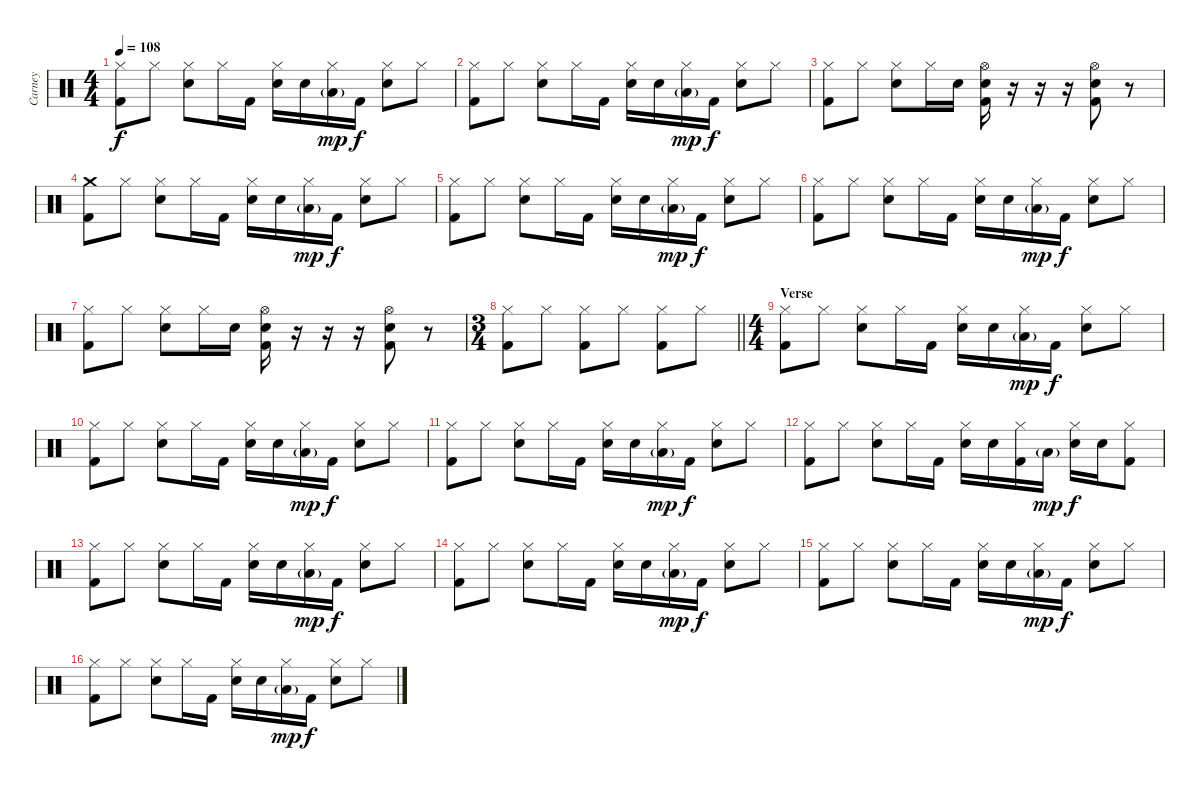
\track ("Carney" "Carney") {instrument percussion}
\staff {score}
\articulation defaults
\ts (4 4)
\tempo 108
\clef neutral
\ks c
("Hi-Hat (closed)" "Kick (hit) 2").8{dy f} "Hi-Hat (closed)".8 ("Hi-Hat (closed)" "Snare (hit) 2").8 "Hi-Hat (closed)".16 "Kick (hit) 2".16 ("Hi-Hat (closed)" "Snare (hit) 2").16 "Snare (hit) 2".16 ("Hi-Hat (closed)" "Low Floor Tom (hit)"{g}).16{dy mp} "Kick (hit) 2".16{dy f} ("Hi-Hat (closed)" "Snare (hit) 2").8 "Hi-Hat (closed)".8 |
("Hi-Hat (closed)" "Kick (hit) 2").8 "Hi-Hat (closed)".8 ("Hi-Hat (closed)" "Snare (hit) 2").8 "Hi-Hat (closed)".16 "Kick (hit) 2".16 ("Hi-Hat (closed)" "Snare (hit) 2").16 "Snare (hit) 2".16 ("Hi-Hat (closed)" "Low Floor Tom (hit)"{g}).16{dy mp} "Kick (hit) 2".16{dy f} ("Hi-Hat (closed)" "Snare (hit) 2").8 "Hi-Hat (closed)".8 |
("Hi-Hat (closed)" "Kick (hit) 2").8 "Hi-Hat (closed)".8 ("Hi-Hat (closed)" "Snare (hit) 2").8 "Hi-Hat (closed)".16 "Snare (hit) 2".16 ("Hi-Hat (open)" "Snare (hit) 2" "Kick (hit) 2").16 r.16 r.16 r.16 ("Hi-Hat (open)" "Snare (hit) 2" "Kick (hit) 2").8 r.8 |
("Crash medium (hit)" "Kick (hit) 2").8 "Hi-Hat (closed)".8 ("Hi-Hat (closed)" "Snare (hit) 2").8 "Hi-Hat (closed)".16 "Kick (hit) 2".16 ("Hi-Hat (closed)" "Snare (hit) 2").16 "Snare (hit) 2".16 ("Hi-Hat (closed)" "Low Floor Tom (hit)"{g}).16{dy mp} "Kick (hit) 2".16{dy f} ("Hi-Hat (closed)" "Snare (hit) 2").8 "Hi-Hat (closed)".8 |
("Hi-Hat (closed)" "Kick (hit) 2").8 "Hi-Hat (closed)".8 ("Hi-Hat (closed)" "Snare (hit) 2").8 "Hi-Hat (closed)".16 "Kick (hit) 2".16 ("Hi-Hat (closed)" "Snare (hit) 2").16 "Snare (hit) 2".16 ("Hi-Hat (closed)" "Low Floor Tom (hit)"{g}).16{dy mp} "Kick (hit) 2".16{dy f} ("Hi-Hat (closed)" "Snare (hit) 2").8 "Hi-Hat (closed)".8 |
("Hi-Hat (closed)" "Kick (hit) 2").8 "Hi-Hat (closed)".8 ("Hi-Hat (closed)" "Snare (hit) 2").8 "Hi-Hat (closed)".16 "Kick (hit) 2".16 ("Hi-Hat (closed)" "Snare (hit) 2").16 "Snare (hit) 2".16 ("Hi-Hat (closed)" "Low Floor Tom (hit)"{g}).16{dy mp} "Kick (hit) 2".16{dy f} ("Hi-Hat (closed)" "Snare (hit) 2").8 "Hi-Hat (closed)".8 |
("Hi-Hat (closed)" "Kick (hit) 2").8 "Hi-Hat (closed)".8 ("Hi-Hat (closed)" "Snare (hit) 2").8 "Hi-Hat (closed)".16 "Snare (hit) 2".16 ("Hi-Hat (open)" "Snare (hit) 2" "Kick (hit) 2").16 r.16 r.16 r.16 ("Hi-Hat (open)" "Snare (hit) 2" "Kick (hit) 2").8 r.8 |
\ts (3 4)
\barLineRight lightlight
("Hi-Hat (closed)" "Kick (hit) 2").8 "Hi-Hat (closed)".8 ("Hi-Hat (closed)" "Kick (hit) 2").8 "Hi-Hat (closed)".8 ("Hi-Hat (closed)" "Kick (hit) 2").8 "Hi-Hat (closed)".8 |
\ts (4 4)
\section ("" "Verse")
("Hi-Hat (closed)" "Kick (hit) 2").8 "Hi-Hat (closed)".8 ("Hi-Hat (closed)" "Snare (hit) 2").8 "Hi-Hat (closed)".16 "Kick (hit) 2".16 ("Hi-Hat (closed)" "Snare (hit) 2").16 "Snare (hit) 2".16 ("Hi-Hat (closed)" "Low Floor Tom (hit)"{g}).16{dy mp} "Kick (hit) 2".16{dy f} ("Hi-Hat (closed)" "Snare (hit) 2").8 "Hi-Hat (closed)".8 |
("Hi-Hat (closed)" "Kick (hit) 2").8 "Hi-Hat (closed)".8 ("Hi-Hat (closed)" "Snare (hit) 2").8 "Hi-Hat (closed)".16 "Kick (hit) 2".16 ("Hi-Hat (closed)" "Snare (hit) 2").16 "Snare (hit) 2".16 ("Hi-Hat (closed)" "Low Floor Tom (hit)"{g}).16{dy mp} "Kick (hit) 2".16{dy f} ("Hi-Hat (closed)" "Snare (hit) 2").8 "Hi-Hat (closed)".8 |
("Hi-Hat (closed)" "Kick (hit) 2").8 "Hi-Hat (closed)".8 ("Hi-Hat (closed)" "Snare (hit) 2").8 "Hi-Hat (closed)".16 "Kick (hit) 2".16 ("Hi-Hat (closed)" "Snare (hit) 2").16 "Snare (hit) 2".16 ("Hi-Hat (closed)" "Low Floor Tom (hit)"{g}).16{dy mp} "Kick (hit) 2".16{dy f} ("Hi-Hat (closed)" "Snare (hit) 2").8 "Hi-Hat (closed)".8 |
("Hi-Hat (closed)" "Kick (hit) 2").8 "Hi-Hat (closed)".8 ("Hi-Hat (closed)" "Snare (hit) 2").8 "Hi-Hat (closed)".16 "Kick (hit) 2".16 ("Hi-Hat (closed)" "Snare (hit) 2").16 "Snare (hit) 2".16 ("Hi-Hat (closed)" "Kick (hit) 2").16 "Low Floor Tom (hit)"{g}.16{dy mp} ("Hi-Hat (closed)" "Snare (hit) 2").16{dy f} "Snare (hit) 2".16 ("Hi-Hat (closed)" "Kick (hit) 2").8 |
("Hi-Hat (closed)" "Kick (hit) 2").8 "Hi-Hat (closed)".8 ("Hi-Hat (closed)" "Snare (hit) 2").8 "Hi-Hat (closed)".16 "Kick (hit) 2".16 ("Hi-Hat (closed)" "Snare (hit) 2").16 "Snare (hit) 2".16 ("Hi-Hat (closed)" "Low Floor Tom (hit)"{g}).16{dy mp} "Kick (hit) 2".16{dy f} ("Hi-Hat (closed)" "Snare (hit) 2").8 "Hi-Hat (closed)".8 |
("Hi-Hat (closed)" "Kick (hit) 2").8 "Hi-Hat (closed)".8 ("Hi-Hat (closed)" "Snare (hit) 2").8 "Hi-Hat (closed)".16 "Kick (hit) 2".16 ("Hi-Hat (closed)" "Snare (hit) 2").16 "Snare (hit) 2".16 ("Hi-Hat (closed)" "Low Floor Tom (hit)"{g}).16{dy mp} "Kick (hit) 2".16{dy f} ("Hi-Hat (closed)" "Snare (hit) 2").8 "Hi-Hat (closed)".8 |
("Hi-Hat (closed)" "Kick (hit) 2").8 "Hi-Hat (closed)".8 ("Hi-Hat (closed)" "Snare (hit) 2").8 "Hi-Hat (closed)".16 "Kick (hit) 2".16 ("Hi-Hat (closed)" "Snare (hit) 2").16 "Snare (hit) 2".16 ("Hi-Hat (closed)" "Low Floor Tom (hit)"{g}).16{dy mp} "Kick (hit) 2".16{dy f} ("Hi-Hat (closed)" "Snare (hit) 2").8 "Hi-Hat (closed)".8 |
("Hi-Hat (closed)" "Kick (hit) 2").8 "Hi-Hat (closed)".8 ("Hi-Hat (closed)" "Snare (hit) 2").8 "Hi-Hat (closed)".16 "Kick (hit) 2".16 ("Hi-Hat (closed)" "Snare (hit) 2").16 "Snare (hit) 2".16 ("Hi-Hat (closed)" "Low Floor Tom (hit)"{g}).16{dy mp} "Kick (hit) 2".16{dy f} ("Hi-Hat (closed)" "Snare (hit) 2").8 "Hi-Hat (closed)".8
